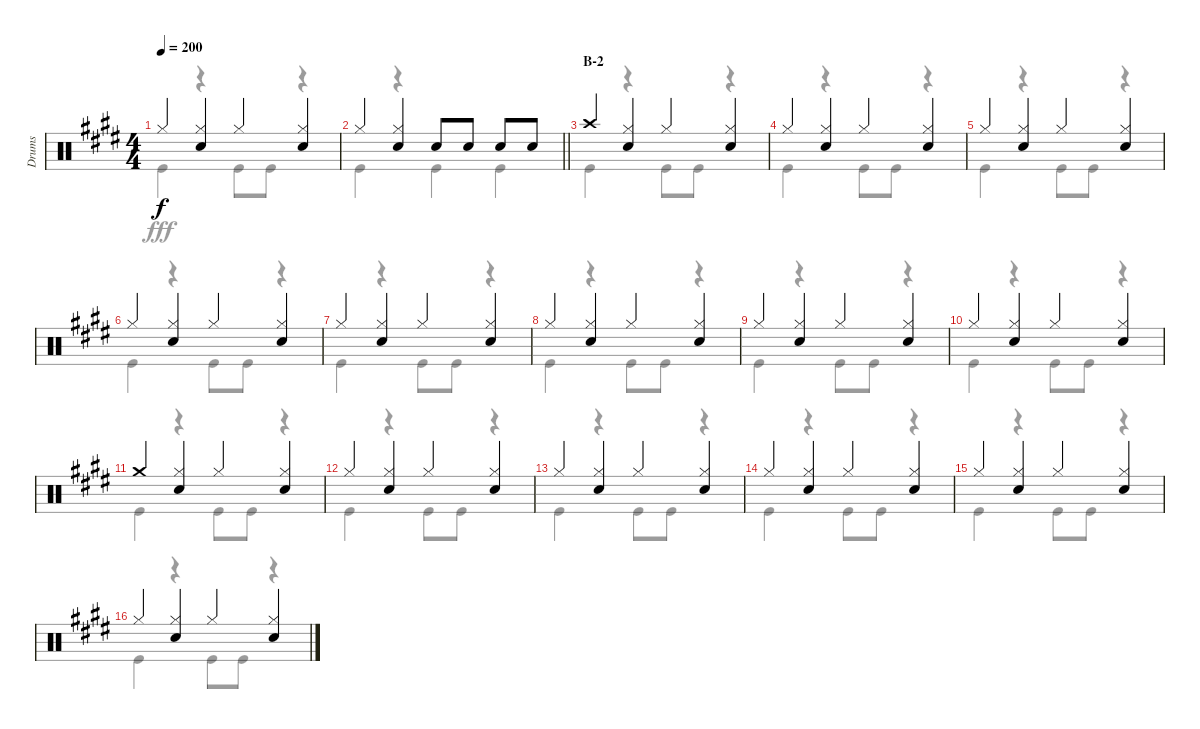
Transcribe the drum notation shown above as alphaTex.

\track ("Drums" "Drums") {instrument percussion}
\staff {score}
\articulation defaults
\voice
\ts (4 4)
\tempo 200
\clef neutral
\ks e "Hi-Hat (closed)".4{dy f}
("Hi-Hat (closed)" "Snare (hit) 2").4 "Hi-Hat (closed)".4 ("Hi-Hat (closed)" "Snare (hit) 2").4 |
\barLineRight lightlight "Hi-Hat (closed)".4
("Hi-Hat (closed)" "Snare (hit) 2").4 "Snare (hit) 2".8 "Snare (hit) 2".8 "Snare (hit) 2".8 "Snare (hit) 2".8 |
\section ("" "B-2")
"Crash high (hit)".4 ("Hi-Hat (closed)" "Snare (hit) 2").4 "Hi-Hat (closed)".4 ("Hi-Hat (closed)" "Snare (hit) 2").4 |
"Hi-Hat (closed)".4 ("Hi-Hat (closed)" "Snare (hit) 2").4 "Hi-Hat (closed)".4 ("Hi-Hat (closed)" "Snare (hit) 2").4 |
"Hi-Hat (closed)".4 ("Hi-Hat (closed)" "Snare (hit) 2").4 "Hi-Hat (closed)".4 ("Hi-Hat (closed)" "Snare (hit) 2").4 |
"Hi-Hat (closed)".4 ("Hi-Hat (closed)" "Snare (hit) 2").4 "Hi-Hat (closed)".4 ("Hi-Hat (closed)" "Snare (hit) 2").4 |
"Hi-Hat (closed)".4 ("Hi-Hat (closed)" "Snare (hit) 2").4 "Hi-Hat (closed)".4 ("Hi-Hat (closed)" "Snare (hit) 2").4 |
"Hi-Hat (closed)".4 ("Hi-Hat (closed)" "Snare (hit) 2").4 "Hi-Hat (closed)".4 ("Hi-Hat (closed)" "Snare (hit) 2").4 |
"Hi-Hat (closed)".4 ("Hi-Hat (closed)" "Snare (hit) 2").4 "Hi-Hat (closed)".4 ("Hi-Hat (closed)" "Snare (hit) 2").4 |
"Hi-Hat (closed)".4 ("Hi-Hat (closed)" "Snare (hit) 2").4 "Hi-Hat (closed)".4 ("Hi-Hat (closed)" "Snare (hit) 2").4 |
"Crash medium (hit)".4 ("Hi-Hat (closed)" "Snare (hit) 2").4 "Hi-Hat (closed)".4 ("Hi-Hat (closed)" "Snare (hit) 2").4 |
"Hi-Hat (closed)".4 ("Hi-Hat (closed)" "Snare (hit) 2").4 "Hi-Hat (closed)".4 ("Hi-Hat (closed)" "Snare (hit) 2").4 |
"Hi-Hat (closed)".4 ("Hi-Hat (closed)" "Snare (hit) 2").4 "Hi-Hat (closed)".4 ("Hi-Hat (closed)" "Snare (hit) 2").4 |
"Hi-Hat (closed)".4 ("Hi-Hat (closed)" "Snare (hit) 2").4 "Hi-Hat (closed)".4 ("Hi-Hat (closed)" "Snare (hit) 2").4 |
"Hi-Hat (closed)".4 ("Hi-Hat (closed)" "Snare (hit) 2").4 "Hi-Hat (closed)".4 ("Hi-Hat (closed)" "Snare (hit) 2").4 |
"Hi-Hat (closed)".4 ("Hi-Hat (closed)" "Snare (hit) 2").4 "Hi-Hat (closed)".4 ("Hi-Hat (closed)" "Snare (hit) 2").4
\voice
\clef neutral
\ottava regular
\simile none
\ks e "Kick (hit)".4{dy fff}
r.4 "Kick (hit)".8 "Kick (hit)".8 r.4 |
\barLineRight lightlight "Kick (hit)".4
r.4 "Kick (hit)".4 "Kick (hit)".4 |
"Kick (hit)".4 r.4 "Kick (hit)".8 "Kick (hit)".8 r.4 |
"Kick (hit)".4 r.4 "Kick (hit)".8 "Kick (hit)".8 r.4 |
"Kick (hit)".4 r.4 "Kick (hit)".8 "Kick (hit)".8 r.4 |
"Kick (hit)".4 r.4 "Kick (hit)".8 "Kick (hit)".8 r.4 |
"Kick (hit)".4 r.4 "Kick (hit)".8 "Kick (hit)".8 r.4 |
"Kick (hit)".4 r.4 "Kick (hit)".8 "Kick (hit)".8 r.4 |
"Kick (hit)".4 r.4 "Kick (hit)".8 "Kick (hit)".8 r.4 |
"Kick (hit)".4 r.4 "Kick (hit)".8 "Kick (hit)".8 r.4 |
"Kick (hit)".4 r.4 "Kick (hit)".8 "Kick (hit)".8 r.4 |
"Kick (hit)".4 r.4 "Kick (hit)".8 "Kick (hit)".8 r.4 |
"Kick (hit)".4 r.4 "Kick (hit)".8 "Kick (hit)".8 r.4 |
"Kick (hit)".4 r.4 "Kick (hit)".8 "Kick (hit)".8 r.4 |
"Kick (hit)".4 r.4 "Kick (hit)".8 "Kick (hit)".8 r.4 |
"Kick (hit)".4 r.4 "Kick (hit)".8 "Kick (hit)".8 r.4
